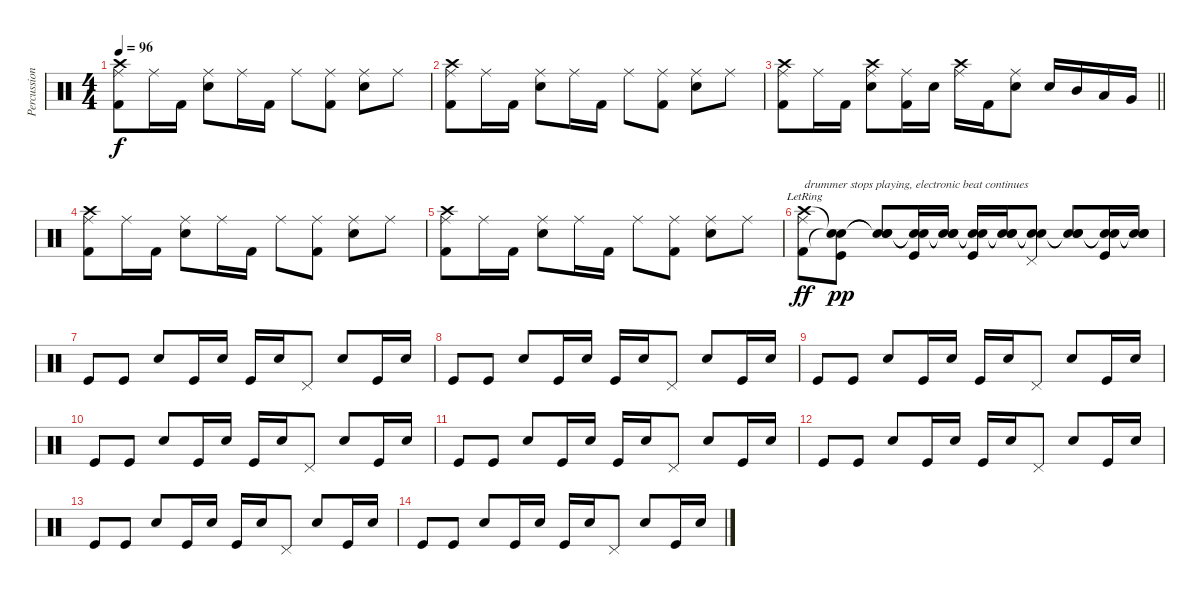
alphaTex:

\track ("Percussion" "Percussion") {instrument percussion}
\staff {score}
\articulation defaults
\ts (4 4)
\tempo 96
\clef neutral
\ks c
("Crash high (hit)" "Ride (middle)" "Kick (hit) 2").8{dy f} "Ride (middle)".16 "Kick (hit) 2".16 ("Ride (middle)" "Electric Snare (hit)").8 "Ride (middle)".16 "Kick (hit) 2".16 "Ride (middle)".8 ("Ride (middle)" "Kick (hit) 2").8 ("Ride (middle)" "Electric Snare (hit)").8 "Ride (middle)".8 |
("Crash high (hit)" "Ride (middle)" "Kick (hit) 2").8 "Ride (middle)".16 "Kick (hit) 2".16 ("Ride (middle)" "Electric Snare (hit)").8 "Ride (middle)".16 "Kick (hit) 2".16 "Ride (middle)".8 ("Ride (middle)" "Kick (hit) 2").8 ("Ride (middle)" "Electric Snare (hit)").8 "Ride (middle)".8 |
\barLineRight lightlight
("Crash high (hit)" "Ride (middle)" "Kick (hit) 2").8 "Ride (middle)".16 "Kick (hit) 2".16 ("Crash high (hit)" "Ride (middle)" "Electric Snare (hit)").8 ("Ride (middle)" "Kick (hit) 2").16 "Electric Snare (hit)".16 ("Crash high (hit)" "Ride (middle)").16 "Kick (hit) 2".16 ("Ride (middle)" "Electric Snare (hit)").8 "Electric Snare (hit)".16 "Mid Tom (hit)".16 "Low Tom (hit)".16 "Very Low Tom (hit)".16 |
("Crash high (hit)" "Ride (middle)" "Kick (hit) 2").8 "Ride (middle)".16 "Kick (hit) 2".16 ("Ride (middle)" "Electric Snare (hit)").8 "Ride (middle)".16 "Kick (hit) 2".16 "Ride (middle)".8 ("Ride (middle)" "Kick (hit) 2").8 ("Ride (middle)" "Electric Snare (hit)").8 "Ride (middle)".8 |
("Crash high (hit)" "Ride (middle)" "Kick (hit) 2").8 "Ride (middle)".16 "Kick (hit) 2".16 ("Ride (middle)" "Electric Snare (hit)").8 "Ride (middle)".16 "Kick (hit) 2".16 "Ride (middle)".8 ("Ride (middle)" "Kick (hit) 2").8 ("Ride (middle)" "Electric Snare (hit)").8 "Ride (middle)".8 |
("Crash high (hit)"{lr} "Ride (middle)"{lr} "Kick (hit) 2"{lr}).8{txt "drummer stops playing, electronic beat continues" dy ff} ("Snare (hit)"{t} "Kick (hit)" "Snare (hit)"{t}).8{dy pp} ("Snare (hit)"{t} "Hand Clap (hit)" "Snare (hit)"{t}).8 ("Snare (hit)"{t} "Kick (hit)" "Snare (hit)"{t}).16 ("Snare (hit)"{t} "Hand Clap (hit)" "Snare (hit)"{t}).16 ("Snare (hit)"{t} "Kick (hit)" "Snare (hit)"{t}).16 ("Snare (hit)"{t} "Hand Clap (hit)" "Snare (hit)"{t}).16 ("Snare (hit)"{t} "Pedal Hi-Hat (hit)" "Snare (hit)"{t}).8 ("Snare (hit)"{t} "Hand Clap (hit)" "Snare (hit)"{t}).8 ("Snare (hit)"{t} "Kick (hit)" "Snare (hit)"{t}).16 ("Snare (hit)"{t} "Hand Clap (hit)" "Snare (hit)"{t}).16 |
"Kick (hit)".8 "Kick (hit)".8 "Hand Clap (hit)".8 "Kick (hit)".16 "Hand Clap (hit)".16 "Kick (hit)".16 "Hand Clap (hit)".16 "Pedal Hi-Hat (hit)".8 "Hand Clap (hit)".8 "Kick (hit)".16 "Hand Clap (hit)".16 |
"Kick (hit)".8 "Kick (hit)".8 "Hand Clap (hit)".8 "Kick (hit)".16 "Hand Clap (hit)".16 "Kick (hit)".16 "Hand Clap (hit)".16 "Pedal Hi-Hat (hit)".8 "Hand Clap (hit)".8 "Kick (hit)".16 "Hand Clap (hit)".16 |
"Kick (hit)".8{volume 10} "Kick (hit)".8 "Hand Clap (hit)".8 "Kick (hit)".16 "Hand Clap (hit)".16 "Kick (hit)".16 "Hand Clap (hit)".16 "Pedal Hi-Hat (hit)".8 "Hand Clap (hit)".8 "Kick (hit)".16 "Hand Clap (hit)".16 |
"Kick (hit)".8 "Kick (hit)".8 "Hand Clap (hit)".8 "Kick (hit)".16 "Hand Clap (hit)".16 "Kick (hit)".16 "Hand Clap (hit)".16 "Pedal Hi-Hat (hit)".8 "Hand Clap (hit)".8 "Kick (hit)".16 "Hand Clap (hit)".16 |
"Kick (hit)".8{volume 7} "Kick (hit)".8 "Hand Clap (hit)".8 "Kick (hit)".16 "Hand Clap (hit)".16 "Kick (hit)".16 "Hand Clap (hit)".16 "Pedal Hi-Hat (hit)".8 "Hand Clap (hit)".8 "Kick (hit)".16 "Hand Clap (hit)".16 |
"Kick (hit)".8 "Kick (hit)".8 "Hand Clap (hit)".8 "Kick (hit)".16 "Hand Clap (hit)".16 "Kick (hit)".16 "Hand Clap (hit)".16 "Pedal Hi-Hat (hit)".8 "Hand Clap (hit)".8 "Kick (hit)".16 "Hand Clap (hit)".16 |
"Kick (hit)".8{volume 2} "Kick (hit)".8 "Hand Clap (hit)".8 "Kick (hit)".16 "Hand Clap (hit)".16 "Kick (hit)".16 "Hand Clap (hit)".16 "Pedal Hi-Hat (hit)".8 "Hand Clap (hit)".8 "Kick (hit)".16 "Hand Clap (hit)".16 |
"Kick (hit)".8 "Kick (hit)".8 "Hand Clap (hit)".8 "Kick (hit)".16 "Hand Clap (hit)".16 "Kick (hit)".16 "Hand Clap (hit)".16 "Pedal Hi-Hat (hit)".8 "Hand Clap (hit)".8 "Kick (hit)".16 "Hand Clap (hit)".16
